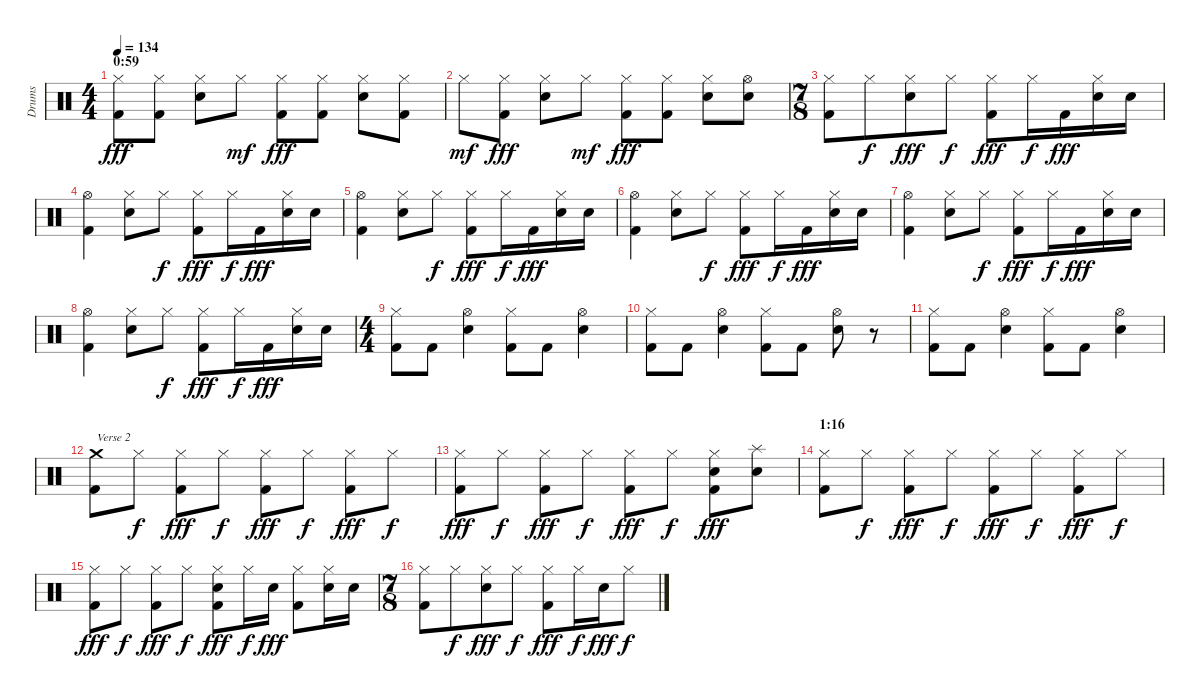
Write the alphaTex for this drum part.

\track ("Drums" "Drums") {instrument percussion}
\staff {score}
\articulation defaults
\ts (4 4)
\section ("" "0:59")
\tempo 134
\clef neutral
\ks c
("Hi-Hat (closed)" "Kick (hit) 2").8{dy fff} ("Hi-Hat (closed)" "Kick (hit) 2").8 ("Hi-Hat (closed)" "Snare (hit) 2").8 "Hi-Hat (closed)".8{dy mf} ("Hi-Hat (closed)" "Kick (hit) 2").8{dy fff} ("Hi-Hat (closed)" "Kick (hit) 2").8 ("Hi-Hat (closed)" "Snare (hit) 2").8 ("Hi-Hat (closed)" "Kick (hit) 2").8 |
"Hi-Hat (closed)".8{dy mf} ("Hi-Hat (closed)" "Kick (hit) 2").8{dy fff} ("Hi-Hat (closed)" "Snare (hit) 2").8 "Hi-Hat (closed)".8{dy mf} ("Hi-Hat (closed)" "Kick (hit) 2").8{dy fff} ("Hi-Hat (closed)" "Kick (hit) 2").8 ("Hi-Hat (closed)" "Snare (hit) 2").8 ("Hi-Hat (open)" "Snare (hit) 2").8 |
\ts (7 8)
("Hi-Hat (closed)" "Kick (hit) 2").8 "Hi-Hat (closed)".8{dy f} ("Hi-Hat (closed)" "Snare (hit) 2").8{dy fff} "Hi-Hat (closed)".8{dy f} ("Hi-Hat (closed)" "Kick (hit) 2").8{dy fff} "Hi-Hat (closed)".16{dy f} "Kick (hit) 2".16{dy fff} ("Hi-Hat (closed)" "Snare (hit) 2").16 "Snare (hit) 2".16 |
("Hi-Hat (open)" "Kick (hit) 2").4 ("Hi-Hat (closed)" "Snare (hit) 2").8 "Hi-Hat (closed)".8{dy f} ("Hi-Hat (closed)" "Kick (hit) 2").8{dy fff} "Hi-Hat (closed)".16{dy f} "Kick (hit) 2".16{dy fff} ("Hi-Hat (closed)" "Snare (hit) 2").16 "Snare (hit) 2".16 |
("Hi-Hat (open)" "Kick (hit) 2").4 ("Hi-Hat (closed)" "Snare (hit) 2").8 "Hi-Hat (closed)".8{dy f} ("Hi-Hat (closed)" "Kick (hit) 2").8{dy fff} "Hi-Hat (closed)".16{dy f} "Kick (hit) 2".16{dy fff} ("Hi-Hat (closed)" "Snare (hit) 2").16 "Snare (hit) 2".16 |
("Hi-Hat (open)" "Kick (hit) 2").4 ("Hi-Hat (closed)" "Snare (hit) 2").8 "Hi-Hat (closed)".8{dy f} ("Hi-Hat (closed)" "Kick (hit) 2").8{dy fff} "Hi-Hat (closed)".16{dy f} "Kick (hit) 2".16{dy fff} ("Hi-Hat (closed)" "Snare (hit) 2").16 "Snare (hit) 2".16 |
("Hi-Hat (open)" "Kick (hit) 2").4 ("Hi-Hat (closed)" "Snare (hit) 2").8 "Hi-Hat (closed)".8{dy f} ("Hi-Hat (closed)" "Kick (hit) 2").8{dy fff} "Hi-Hat (closed)".16{dy f} "Kick (hit) 2".16{dy fff} ("Hi-Hat (closed)" "Snare (hit) 2").16 "Snare (hit) 2".16 |
("Hi-Hat (open)" "Kick (hit) 2").4 ("Hi-Hat (closed)" "Snare (hit) 2").8 "Hi-Hat (closed)".8{dy f} ("Hi-Hat (closed)" "Kick (hit) 2").8{dy fff} "Hi-Hat (closed)".16{dy f} "Kick (hit) 2".16{dy fff} ("Hi-Hat (closed)" "Snare (hit) 2").16 "Snare (hit) 2".16 |
\ts (4 4)
("Hi-Hat (closed)" "Kick (hit) 2").8 "Kick (hit) 2".8 ("Hi-Hat (open)" "Snare (hit) 2").4 ("Hi-Hat (closed)" "Kick (hit) 2").8 "Kick (hit) 2".8 ("Hi-Hat (open)" "Snare (hit) 2").4 |
("Hi-Hat (closed)" "Kick (hit) 2").8 "Kick (hit) 2".8 ("Hi-Hat (open)" "Snare (hit) 2").4 ("Hi-Hat (closed)" "Kick (hit) 2").8 "Kick (hit) 2".8 ("Hi-Hat (open)" "Snare (hit) 2").8 r.8 |
("Hi-Hat (closed)" "Kick (hit) 2").8 "Kick (hit) 2".8 ("Hi-Hat (open)" "Snare (hit) 2").4 ("Hi-Hat (closed)" "Kick (hit) 2").8 "Kick (hit) 2".8 ("Hi-Hat (open)" "Snare (hit) 2").4 |
("Crash medium (hit)" "Kick (hit) 2").8{txt "Verse 2"} "Hi-Hat (closed)".8{dy f} ("Hi-Hat (closed)" "Kick (hit) 2").8{dy fff} "Hi-Hat (closed)".8{dy f} ("Hi-Hat (closed)" "Kick (hit) 2").8{dy fff} "Hi-Hat (closed)".8{dy f} ("Hi-Hat (closed)" "Kick (hit) 2").8{dy fff} "Hi-Hat (closed)".8{dy f} |
("Hi-Hat (closed)" "Kick (hit) 2").8{dy fff} "Hi-Hat (closed)".8{dy f} ("Hi-Hat (closed)" "Kick (hit) 2").8{dy fff} "Hi-Hat (closed)".8{dy f} ("Hi-Hat (closed)" "Kick (hit) 2").8{dy fff} "Hi-Hat (closed)".8{dy f} ("Hi-Hat (closed)" "Snare (hit) 2" "Kick (hit) 2").8{dy fff} ("Splash (hit)" "Snare (hit) 2").8 |
\section ("" "1:16")
("Hi-Hat (closed)" "Kick (hit) 2").8 "Hi-Hat (closed)".8{dy f} ("Hi-Hat (closed)" "Kick (hit) 2").8{dy fff} "Hi-Hat (closed)".8{dy f} ("Hi-Hat (closed)" "Kick (hit) 2").8{dy fff} "Hi-Hat (closed)".8{dy f} ("Hi-Hat (closed)" "Kick (hit) 2").8{dy fff} "Hi-Hat (closed)".8{dy f} |
("Hi-Hat (closed)" "Kick (hit) 2").8{dy fff} "Hi-Hat (closed)".8{dy f} ("Hi-Hat (closed)" "Kick (hit) 2").8{dy fff} "Hi-Hat (closed)".8{dy f} ("Hi-Hat (closed)" "Snare (hit) 2" "Kick (hit) 2").8{dy fff} "Hi-Hat (closed)".16{dy f} "Snare (hit) 2".16{dy fff} ("Hi-Hat (closed)" "Kick (hit) 2").8 ("Hi-Hat (closed)" "Snare (hit) 2").16 "Snare (hit) 2".16 |
\ts (7 8)
("Hi-Hat (closed)" "Kick (hit) 2").8 "Hi-Hat (closed)".8{dy f} ("Hi-Hat (closed)" "Snare (hit) 2").8{dy fff} "Hi-Hat (closed)".8{dy f} ("Hi-Hat (closed)" "Kick (hit) 2").8{dy fff} "Hi-Hat (closed)".16{dy f} "Snare (hit) 2".16{dy fff} "Hi-Hat (closed)".8{dy f}
